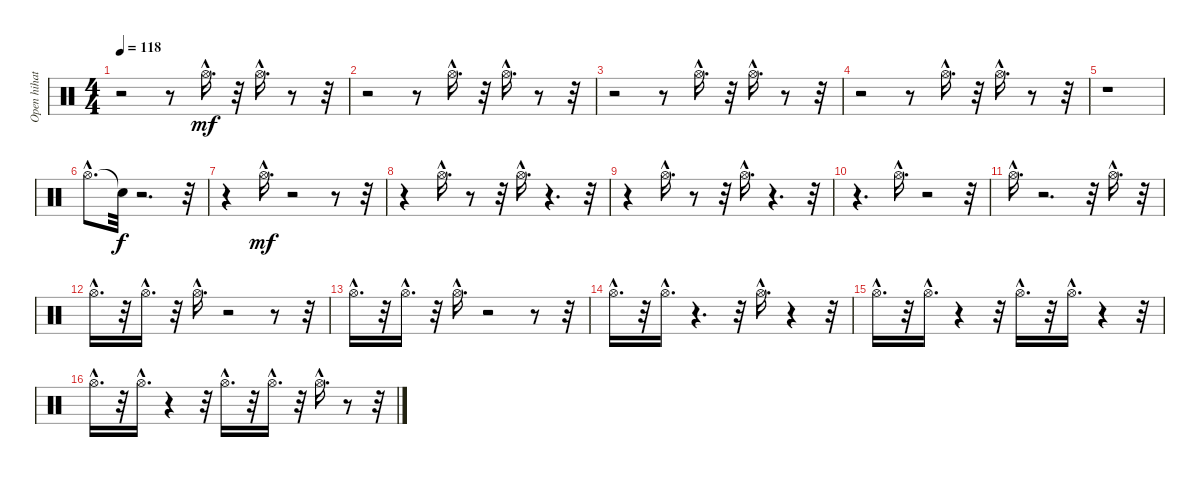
\track ("Open hihat          " "Open hihat") {instrument percussion}
\staff {score}
\articulation defaults
\ts (4 4)
\tempo 118
\clef neutral
\ks c
r.2{dy mf} r.8 "Hi-Hat (open)"{hac}.16{d} r.32 "Hi-Hat (open)"{hac}.16{d} r.8 r.32 |
r.2 r.8 "Hi-Hat (open)"{hac}.16{d} r.32 "Hi-Hat (open)"{hac}.16{d} r.8 r.32 |
r.2 r.8 "Hi-Hat (open)"{hac}.16{d} r.32 "Hi-Hat (open)"{hac}.16{d} r.8 r.32 |
r.2 r.8 "Hi-Hat (open)"{hac}.16{d} r.32 "Hi-Hat (open)"{hac}.16{d} r.8 r.32 |
r.1 |
"Hi-Hat (open)"{hac}.8{d} "Snare (hit)"{t}.32{dy f} r.2{d} r.32 |
r.4 "Hi-Hat (open)"{hac}.16{d dy mf} r.2 r.8 r.32 |
r.4 "Hi-Hat (open)"{hac}.16{d} r.8 r.32 "Hi-Hat (open)"{hac}.16{d} r.4{d} r.32 |
r.4 "Hi-Hat (open)"{hac}.16{d} r.8 r.32 "Hi-Hat (open)"{hac}.16{d} r.4{d} r.32 |
r.4{d} "Hi-Hat (open)"{hac}.16{d} r.2 r.32 |
"Hi-Hat (open)"{hac}.16{d} r.2{d} r.32 "Hi-Hat (open)"{hac}.16{d} r.32 |
"Hi-Hat (open)"{hac}.16{d} r.32 "Hi-Hat (open)"{hac}.16{d} r.32 "Hi-Hat (open)"{hac}.16{d} r.2 r.8 r.32 |
"Hi-Hat (open)"{hac}.16{d} r.32 "Hi-Hat (open)"{hac}.16{d} r.32 "Hi-Hat (open)"{hac}.16{d} r.2 r.8 r.32 |
"Hi-Hat (open)"{hac}.16{d} r.32 "Hi-Hat (open)"{hac}.16{d} r.4{d} r.32 "Hi-Hat (open)"{hac}.16{d} r.4 r.32 |
"Hi-Hat (open)"{hac}.16{d} r.32 "Hi-Hat (open)"{hac}.16{d} r.4 r.32 "Hi-Hat (open)"{hac}.16{d} r.32 "Hi-Hat (open)"{hac}.16{d} r.4 r.32 |
"Hi-Hat (open)"{hac}.16{d} r.32 "Hi-Hat (open)"{hac}.16{d} r.4 r.32 "Hi-Hat (open)"{hac}.16{d} r.32 "Hi-Hat (open)"{hac}.16{d} r.32 "Hi-Hat (open)"{hac}.16{d} r.8 r.32
